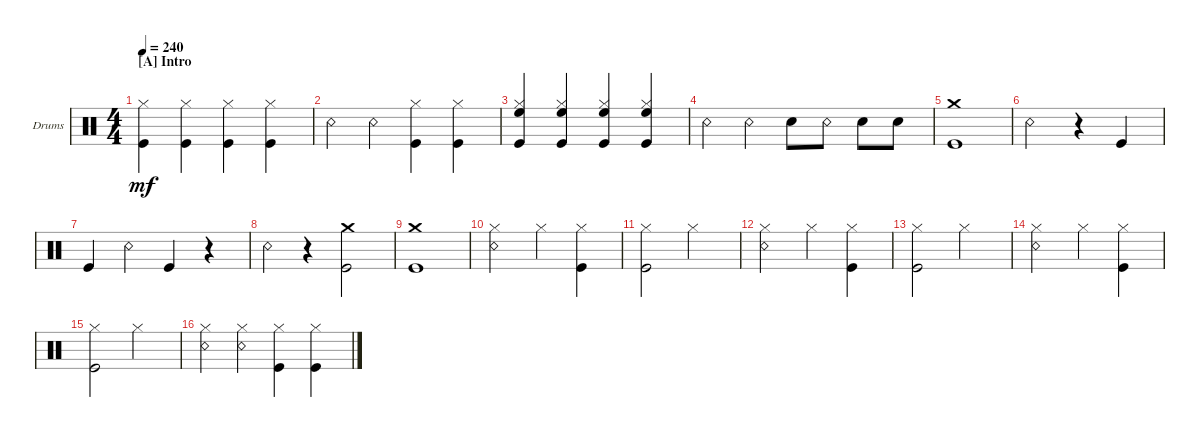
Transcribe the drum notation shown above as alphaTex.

\defaultSystemsLayout 4
\bracketExtendMode groupsimilarinstruments
\firstSystemTrackNameOrientation horizontal
\otherSystemsTrackNameOrientation horizontal
\track ("Drumkit" "Drums") {instrument percussion}
\staff {score}
\articulation defaults
\ts (4 4)
\section ("A" "Intro")
\tempo 240
\clef neutral
\ks c
("Kick (hit)" "Hi-Hat (closed)").4{dy mf} ("Kick (hit)" "Hi-Hat (closed)").4 ("Kick (hit)" "Hi-Hat (closed)").4 ("Kick (hit)" "Hi-Hat (closed)").4 |
"Snare (rim shot)".4 "Snare (rim shot)".4 ("Kick (hit)" "Hi-Hat (closed)").4 ("Kick (hit)" "Hi-Hat (closed)").4 |
("High Floor Tom (hit)" "Kick (hit)" "Hi-Hat (closed)").4 ("High Floor Tom (hit)" "Kick (hit)" "Hi-Hat (closed)").4 ("High Floor Tom (hit)" "Kick (hit)" "Hi-Hat (closed)").4 ("High Floor Tom (hit)" "Kick (hit)" "Hi-Hat (closed)").4 |
"Snare (rim shot)".4 "Snare (rim shot)".4 "Snare (hit) 2".8 "Snare (rim shot)".8 "Snare (hit) 2".8 "Snare (hit) 2".8 |
("Crash medium (hit)" "Kick (hit)").1 |
"Snare (rim shot)".2 r.4 "Kick (hit)".4 |
"Kick (hit)".4 "Snare (rim shot)".4 "Kick (hit)".4 r.4 |
"Snare (rim shot)".4 r.4 ("Crash medium (hit)" "Kick (hit)").2 |
("Crash medium (hit)" "Kick (hit)").1 |
("Snare (rim shot)" "Hi-Hat (closed)").2 "Hi-Hat (closed)".4 ("Kick (hit)" "Hi-Hat (closed)").4 |
("Kick (hit)" "Hi-Hat (closed)").2 "Hi-Hat (closed)".2 |
("Snare (rim shot)" "Hi-Hat (closed)").2 "Hi-Hat (closed)".4 ("Kick (hit)" "Hi-Hat (closed)").4 |
("Kick (hit)" "Hi-Hat (closed)").2 "Hi-Hat (closed)".2 |
("Snare (rim shot)" "Hi-Hat (closed)").2 "Hi-Hat (closed)".4 ("Kick (hit)" "Hi-Hat (closed)").4 |
("Kick (hit)" "Hi-Hat (closed)").2 "Hi-Hat (closed)".2 |
("Snare (rim shot)" "Hi-Hat (closed)").4 ("Snare (rim shot)" "Hi-Hat (closed)").4 ("Kick (hit)" "Hi-Hat (closed)").4 ("Kick (hit)" "Hi-Hat (closed)").4
